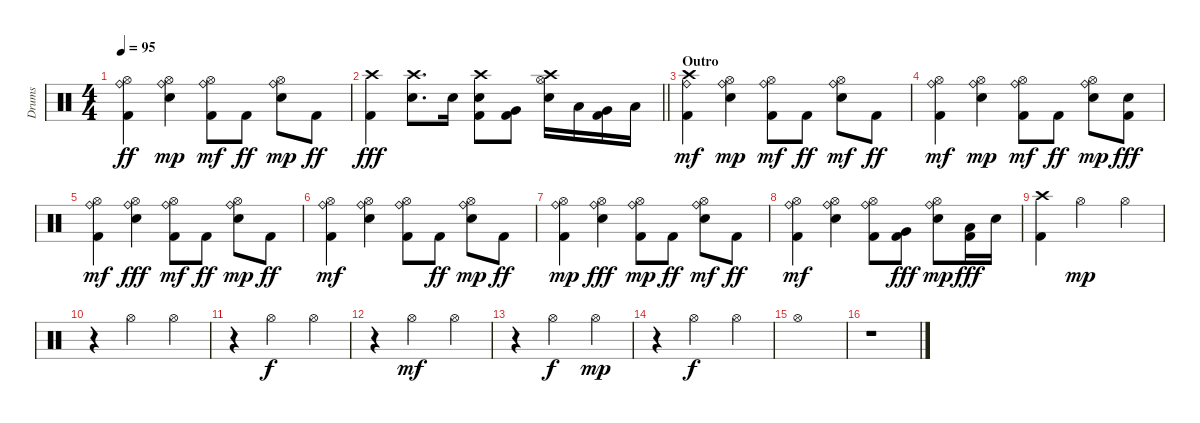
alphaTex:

\track ("Drums" "Drums") {instrument percussion}
\staff {score}
\articulation defaults
\ts (4 4)
\tempo 95
\clef neutral
\ks c
("Kick (hit) 2" "Hi-Hat (open)" "Ride (bell)").4{dy ff} ("Electric Snare (hit)" "Hi-Hat (open)" "Ride (bell)").4{dy mp} ("Kick (hit) 2" "Hi-Hat (open)" "Ride (bell)").8{dy mf} "Kick (hit) 2".8{dy ff} ("Electric Snare (hit)" "Hi-Hat (open)" "Ride (bell)").8{dy mp} "Kick (hit) 2".8{dy ff} |
\barLineRight lightlight
("Kick (hit) 2" "Crash high (hit)").4{dy fff} ("Electric Snare (hit)" "Crash high (hit)").8{d} "Electric Snare (hit)".16 ("Kick (hit) 2" "Electric Snare (hit)" "Crash high (hit)").8 ("Kick (hit) 2" "Very Low Tom (hit)").8 ("Electric Snare (hit)" "Hi-Hat (open)" "Crash high (hit)").16 "Low Tom (hit)".16 ("Kick (hit) 2" "Very Low Tom (hit)").16 "Low Floor Tom (hit)".16 |
\section ("" "Outro")
("Kick (hit) 2" "Crash high (hit)" "Ride (bell)").4{dy mf} ("Electric Snare (hit)" "Hi-Hat (open)" "Ride (bell)").4{dy mp} ("Kick (hit) 2" "Hi-Hat (open)" "Ride (bell)").8{dy mf} "Kick (hit) 2".8{dy ff} ("Electric Snare (hit)" "Hi-Hat (open)" "Ride (bell)").8{dy mf} "Kick (hit) 2".8{dy ff} |
("Kick (hit) 2" "Hi-Hat (open)" "Ride (bell)").4{dy mf} ("Electric Snare (hit)" "Hi-Hat (open)" "Ride (bell)").4{dy mp} ("Kick (hit) 2" "Hi-Hat (open)" "Ride (bell)").8{dy mf} "Kick (hit) 2".8{dy ff} ("Electric Snare (hit)" "Hi-Hat (open)" "Ride (bell)").8{dy mp} ("Kick (hit) 2" "Electric Snare (hit)").8{dy fff} |
("Kick (hit) 2" "Hi-Hat (open)" "Ride (bell)").4{dy mf} ("Electric Snare (hit)" "Hi-Hat (open)" "Ride (bell)").4{dy fff} ("Kick (hit) 2" "Hi-Hat (open)" "Ride (bell)").8{dy mf} "Kick (hit) 2".8{dy ff} ("Electric Snare (hit)" "Hi-Hat (open)" "Ride (bell)").8{dy mp} "Kick (hit) 2".8{dy ff} |
("Kick (hit) 2" "Hi-Hat (open)" "Ride (bell)").4{dy mf} ("Electric Snare (hit)" "Hi-Hat (open)" "Ride (bell)").4 ("Kick (hit) 2" "Hi-Hat (open)" "Ride (bell)").8 "Kick (hit) 2".8{dy ff} ("Electric Snare (hit)" "Hi-Hat (open)" "Ride (bell)").8{dy mp} "Kick (hit) 2".8{dy ff} |
("Kick (hit) 2" "Hi-Hat (open)" "Ride (bell)").4{dy mp} ("Electric Snare (hit)" "Hi-Hat (open)" "Ride (bell)").4{dy fff} ("Kick (hit) 2" "Hi-Hat (open)" "Ride (bell)").8{dy mp} "Kick (hit) 2".8{dy ff} ("Electric Snare (hit)" "Hi-Hat (open)" "Ride (bell)").8{dy mf} "Kick (hit) 2".8{dy ff} |
("Kick (hit) 2" "Hi-Hat (open)" "Ride (bell)").4{dy mf} ("Electric Snare (hit)" "Hi-Hat (open)" "Ride (bell)").4 ("Kick (hit) 2" "Hi-Hat (open)" "Ride (bell)").8 ("Kick (hit) 2" "Very Low Tom (hit)").8{dy fff} ("Electric Snare (hit)" "Hi-Hat (open)" "Ride (bell)").8{dy mp} ("Kick (hit) 2" "Low Floor Tom (hit)").16{dy fff} "Electric Snare (hit)".16 |
("Kick (hit) 2" "Crash high (hit)").4 "Hi-Hat (open)".2{dy mp} "Hi-Hat (open)".4 |
r.4 "Hi-Hat (open)".2 "Hi-Hat (open)".4 |
r.4 "Hi-Hat (open)".2{dy f} "Hi-Hat (open)".4 |
r.4 "Hi-Hat (open)".2{dy mf} "Hi-Hat (open)".4 |
r.4 "Hi-Hat (open)".2{dy f} "Hi-Hat (open)".4{dy mp} |
r.4 "Hi-Hat (open)".2{dy f} "Hi-Hat (open)".4 |
"Hi-Hat (open)".1 |
r.1
